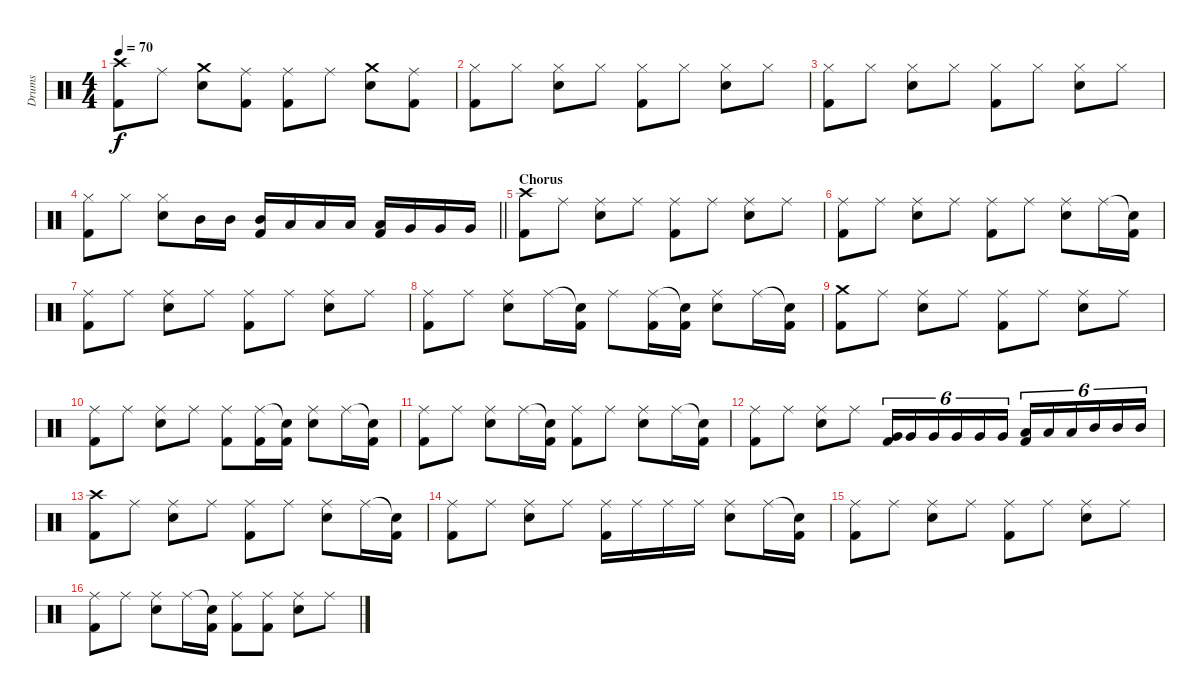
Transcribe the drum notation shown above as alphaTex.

\track ("Drums" "Drums") {instrument percussion}
\staff {score}
\articulation defaults
\ts (4 4)
\tempo 70
\clef neutral
\ks c
("Crash high (hit)" "Kick (hit) 2").8{dy f} "Ride (middle)".8 ("Crash medium (hit)" "Snare (hit) 2").8 ("Ride (middle)" "Kick (hit) 2").8 ("Ride (middle)" "Kick (hit) 2").8 "Ride (middle)".8 ("Crash medium (hit)" "Snare (hit) 2").8 ("Ride (middle)" "Kick (hit) 2").8 |
("Hi-Hat (closed)" "Kick (hit) 2").8 "Hi-Hat (closed)".8 ("Hi-Hat (closed)" "Snare (hit) 2").8 "Hi-Hat (closed)".8 ("Hi-Hat (closed)" "Kick (hit) 2").8 "Hi-Hat (closed)".8 ("Hi-Hat (closed)" "Snare (hit) 2").8 "Hi-Hat (closed)".8 |
("Hi-Hat (closed)" "Kick (hit) 2").8 "Hi-Hat (closed)".8 ("Hi-Hat (closed)" "Snare (hit) 2").8 "Hi-Hat (closed)".8 ("Hi-Hat (closed)" "Kick (hit) 2").8 "Hi-Hat (closed)".8 ("Hi-Hat (closed)" "Snare (hit) 2").8 "Hi-Hat (closed)".8 |
\barLineRight lightlight
("Hi-Hat (closed)" "Kick (hit) 2").8 "Hi-Hat (closed)".8 ("Hi-Hat (closed)" "Snare (hit) 2").8 "Mid Tom (hit)".16 "Mid Tom (hit)".16 ("Mid Tom (hit)" "Kick (hit) 2").16 "Low Tom (hit)".16 "Low Tom (hit)".16 "Low Tom (hit)".16 ("Low Tom (hit)" "Kick (hit) 2").16 "Very Low Tom (hit)".16 "Very Low Tom (hit)".16 "Very Low Tom (hit)".16 |
\section ("" "Chorus")
("Crash high (hit)" "Kick (hit) 2").8 "Ride (middle)".8 ("Ride (middle)" "Snare (hit) 2").8 "Ride (middle)".8 ("Ride (middle)" "Kick (hit) 2").8 "Ride (middle)".8 ("Ride (middle)" "Snare (hit) 2").8 "Ride (middle)".8 |
("Ride (middle)" "Kick (hit) 2").8 "Ride (middle)".8 ("Ride (middle)" "Snare (hit) 2").8 "Ride (middle)".8 ("Ride (middle)" "Kick (hit) 2").8 "Ride (middle)".8 ("Ride (middle)" "Snare (hit) 2").8 "Ride (middle)".16 ("Snare (hit)"{t} "Kick (hit) 2").16 |
("Ride (middle)" "Kick (hit) 2").8 "Ride (middle)".8 ("Ride (middle)" "Snare (hit) 2").8 "Ride (middle)".8 ("Ride (middle)" "Kick (hit) 2").8 "Ride (middle)".8 ("Ride (middle)" "Snare (hit) 2").8 "Ride (middle)".8 |
("Ride (middle)" "Kick (hit) 2").8 "Ride (middle)".8 ("Ride (middle)" "Snare (hit) 2").8 "Ride (middle)".16 ("Snare (hit)"{t} "Kick (hit) 2").16 "Ride (middle)".8 ("Ride (middle)" "Kick (hit) 2").16 ("Snare (hit)"{t} "Kick (hit) 2").16 ("Ride (middle)" "Snare (hit) 2").8 "Ride (middle)".16 ("Snare (hit)"{t} "Kick (hit) 2").16 |
("Crash medium (hit)" "Kick (hit) 2").8 "Ride (middle)".8 ("Ride (middle)" "Snare (hit) 2").8 "Ride (middle)".8 ("Ride (middle)" "Kick (hit) 2").8 "Ride (middle)".8 ("Ride (middle)" "Snare (hit) 2").8 "Ride (middle)".8 |
("Ride (middle)" "Kick (hit) 2").8 "Ride (middle)".8 ("Ride (middle)" "Snare (hit) 2").8 "Ride (middle)".8 ("Ride (middle)" "Kick (hit) 2").8 ("Ride (middle)" "Kick (hit) 2").16 ("Snare (hit)"{t} "Kick (hit) 2").16 ("Ride (middle)" "Snare (hit) 2").8 "Ride (middle)".16 ("Snare (hit)"{t} "Kick (hit) 2").16 |
("Ride (middle)" "Kick (hit) 2").8 "Ride (middle)".8 ("Ride (middle)" "Snare (hit) 2").8 "Ride (middle)".16 ("Snare (hit)"{t} "Kick (hit) 2").16 ("Ride (middle)" "Kick (hit) 2").8 "Ride (middle)".8 ("Ride (middle)" "Snare (hit) 2").8 "Ride (middle)".16 ("Snare (hit)"{t} "Kick (hit) 2").16 |
("Ride (middle)" "Kick (hit) 2").8 "Ride (middle)".8 ("Ride (middle)" "Snare (hit) 2").8 "Ride (middle)".8 ("Very Low Tom (hit)" "Kick (hit) 2").16{tu (6 4)} "Very Low Tom (hit)".16{tu (6 4)} "Very Low Tom (hit)".16{tu (6 4)} "Very Low Tom (hit)".16{tu (6 4)} "Very Low Tom (hit)".16{tu (6 4)} "Very Low Tom (hit)".16{tu (6 4)} ("Low Tom (hit)" "Kick (hit) 2").16{tu (6 4)} "Low Tom (hit)".16{tu (6 4)} "Low Tom (hit)".16{tu (6 4)} "Mid Tom (hit)".16{tu (6 4)} "Mid Tom (hit)".16{tu (6 4)} "Mid Tom (hit)".16{tu (6 4)} |
("Crash high (hit)" "Kick (hit) 2").8 "Ride (middle)".8 ("Ride (middle)" "Snare (hit) 2").8 "Ride (middle)".8 ("Ride (middle)" "Kick (hit) 2").8 "Ride (middle)".8 ("Ride (middle)" "Snare (hit) 2").8 "Ride (middle)".16 ("Snare (hit)"{t} "Kick (hit) 2").16 |
("Ride (middle)" "Kick (hit) 2").8 "Ride (middle)".8 ("Ride (middle)" "Snare (hit) 2").8 "Ride (middle)".8 ("Ride (middle)" "Kick (hit) 2").16 "Ride (middle)".16 "Ride (middle)".16 "Ride (middle)".16 ("Ride (middle)" "Snare (hit) 2").8 "Ride (middle)".16 ("Snare (hit)"{t} "Kick (hit) 2").16 |
("Ride (middle)" "Kick (hit) 2").8 "Ride (middle)".8 ("Ride (middle)" "Snare (hit) 2").8 "Ride (middle)".8 ("Ride (middle)" "Kick (hit) 2").8 "Ride (middle)".8 ("Ride (middle)" "Snare (hit) 2").8 "Ride (middle)".8 |
("Ride (middle)" "Kick (hit) 2").8 "Ride (middle)".8 ("Ride (middle)" "Snare (hit) 2").8 "Ride (middle)".16 ("Snare (hit)"{t} "Kick (hit) 2").16 ("Ride (middle)" "Kick (hit) 2").8 ("Ride (middle)" "Kick (hit) 2").8 ("Ride (middle)" "Snare (hit) 2").8 "Ride (middle)".8
